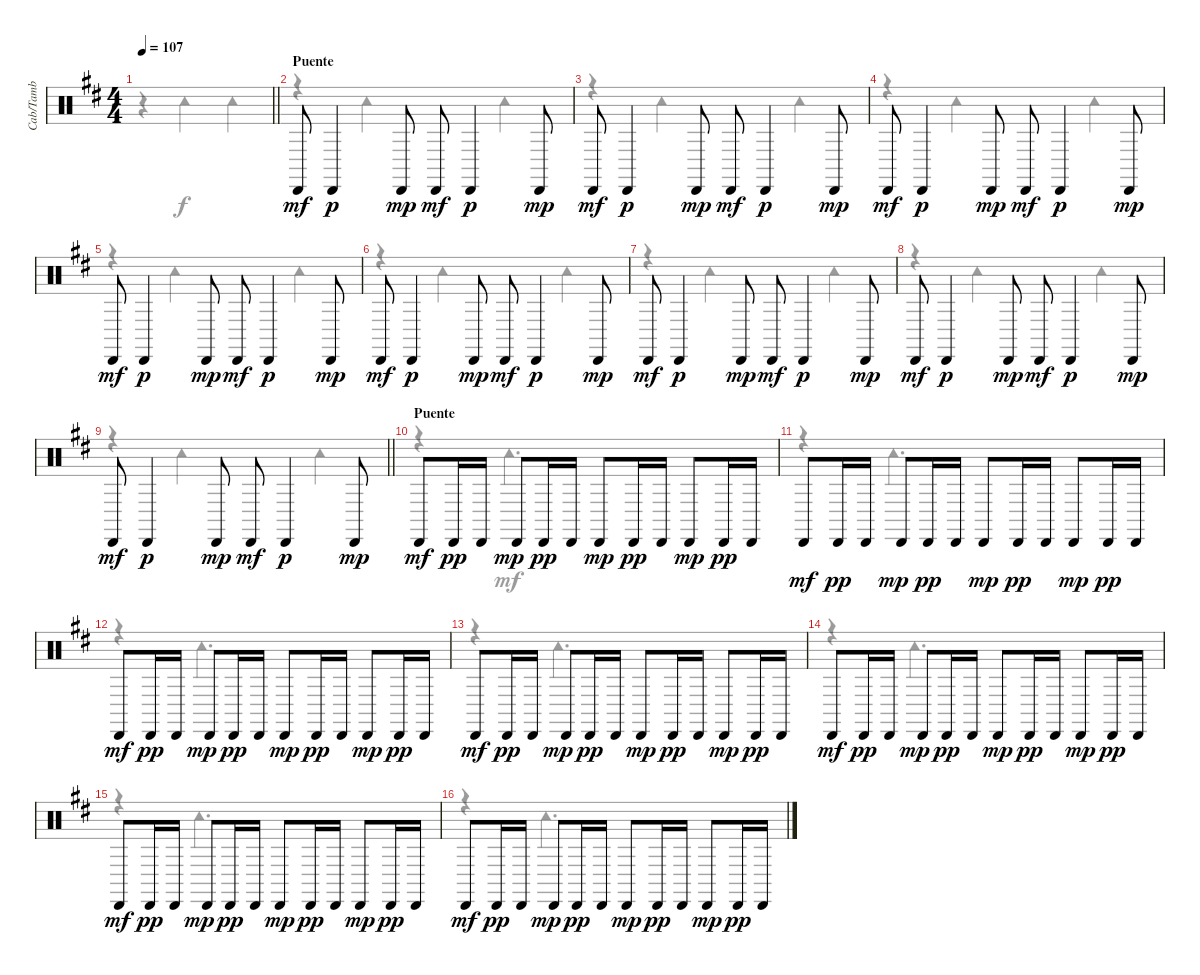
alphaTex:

\track ("Cab/Tamb" "Cab/Tamb") {instrument percussion}
\staff {score}
\articulation defaults
\voice
\ts (4 4)
\tempo 107
\clef neutral
\barLineRight lightlight
\ks d
|
\section ("" "Puente")
"Cabasa (hit)".8{dy mf} "Cabasa (hit)".4{dy p} "Cabasa (hit)".8{dy mp} "Cabasa (hit)".8{dy mf} "Cabasa (hit)".4{dy p} "Cabasa (hit)".8{dy mp} |
"Cabasa (hit)".8{dy mf} "Cabasa (hit)".4{dy p} "Cabasa (hit)".8{dy mp} "Cabasa (hit)".8{dy mf} "Cabasa (hit)".4{dy p} "Cabasa (hit)".8{dy mp} |
"Cabasa (hit)".8{dy mf} "Cabasa (hit)".4{dy p} "Cabasa (hit)".8{dy mp} "Cabasa (hit)".8{dy mf} "Cabasa (hit)".4{dy p} "Cabasa (hit)".8{dy mp} |
"Cabasa (hit)".8{dy mf} "Cabasa (hit)".4{dy p} "Cabasa (hit)".8{dy mp} "Cabasa (hit)".8{dy mf} "Cabasa (hit)".4{dy p} "Cabasa (hit)".8{dy mp} |
"Cabasa (hit)".8{dy mf} "Cabasa (hit)".4{dy p} "Cabasa (hit)".8{dy mp} "Cabasa (hit)".8{dy mf} "Cabasa (hit)".4{dy p} "Cabasa (hit)".8{dy mp} |
"Cabasa (hit)".8{dy mf} "Cabasa (hit)".4{dy p} "Cabasa (hit)".8{dy mp} "Cabasa (hit)".8{dy mf} "Cabasa (hit)".4{dy p} "Cabasa (hit)".8{dy mp} |
"Cabasa (hit)".8{dy mf} "Cabasa (hit)".4{dy p} "Cabasa (hit)".8{dy mp} "Cabasa (hit)".8{dy mf} "Cabasa (hit)".4{dy p} "Cabasa (hit)".8{dy mp} |
\barLineRight lightlight "Cabasa (hit)".8{dy mf} "Cabasa (hit)".4{dy p} "Cabasa (hit)".8{dy mp} "Cabasa (hit)".8{dy mf} "Cabasa (hit)".4{dy p} "Cabasa (hit)".8{dy mp}
|
\section ("" "Puente")
"Cabasa (hit)".8{dy mf} "Cabasa (hit)".16{dy pp} "Cabasa (hit)".16 "Cabasa (hit)".8{dy mp} "Cabasa (hit)".16{dy pp} "Cabasa (hit)".16 "Cabasa (hit)".8{dy mp} "Cabasa (hit)".16{dy pp} "Cabasa (hit)".16 "Cabasa (hit)".8{dy mp} "Cabasa (hit)".16{dy pp} "Cabasa (hit)".16 |
"Cabasa (hit)".8{dy mf} "Cabasa (hit)".16{dy pp} "Cabasa (hit)".16 "Cabasa (hit)".8{dy mp} "Cabasa (hit)".16{dy pp} "Cabasa (hit)".16 "Cabasa (hit)".8{dy mp} "Cabasa (hit)".16{dy pp} "Cabasa (hit)".16 "Cabasa (hit)".8{dy mp} "Cabasa (hit)".16{dy pp} "Cabasa (hit)".16 |
"Cabasa (hit)".8{dy mf} "Cabasa (hit)".16{dy pp} "Cabasa (hit)".16 "Cabasa (hit)".8{dy mp} "Cabasa (hit)".16{dy pp} "Cabasa (hit)".16 "Cabasa (hit)".8{dy mp} "Cabasa (hit)".16{dy pp} "Cabasa (hit)".16 "Cabasa (hit)".8{dy mp} "Cabasa (hit)".16{dy pp} "Cabasa (hit)".16 |
"Cabasa (hit)".8{dy mf} "Cabasa (hit)".16{dy pp} "Cabasa (hit)".16 "Cabasa (hit)".8{dy mp} "Cabasa (hit)".16{dy pp} "Cabasa (hit)".16 "Cabasa (hit)".8{dy mp} "Cabasa (hit)".16{dy pp} "Cabasa (hit)".16 "Cabasa (hit)".8{dy mp} "Cabasa (hit)".16{dy pp} "Cabasa (hit)".16 |
"Cabasa (hit)".8{dy mf} "Cabasa (hit)".16{dy pp} "Cabasa (hit)".16 "Cabasa (hit)".8{dy mp} "Cabasa (hit)".16{dy pp} "Cabasa (hit)".16 "Cabasa (hit)".8{dy mp} "Cabasa (hit)".16{dy pp} "Cabasa (hit)".16 "Cabasa (hit)".8{dy mp} "Cabasa (hit)".16{dy pp} "Cabasa (hit)".16 |
"Cabasa (hit)".8{dy mf} "Cabasa (hit)".16{dy pp} "Cabasa (hit)".16 "Cabasa (hit)".8{dy mp} "Cabasa (hit)".16{dy pp} "Cabasa (hit)".16 "Cabasa (hit)".8{dy mp} "Cabasa (hit)".16{dy pp} "Cabasa (hit)".16 "Cabasa (hit)".8{dy mp} "Cabasa (hit)".16{dy pp} "Cabasa (hit)".16 |
"Cabasa (hit)".8{dy mf} "Cabasa (hit)".16{dy pp} "Cabasa (hit)".16 "Cabasa (hit)".8{dy mp} "Cabasa (hit)".16{dy pp} "Cabasa (hit)".16 "Cabasa (hit)".8{dy mp} "Cabasa (hit)".16{dy pp} "Cabasa (hit)".16 "Cabasa (hit)".8{dy mp} "Cabasa (hit)".16{dy pp} "Cabasa (hit)".16
\voice
\clef neutral
\ottava regular
\simile none
\barLineRight lightlight
\ks d
r.4{dy f} "Tambourine (hit)".2 "Tambourine (hit)".4 |
r.4 "Tambourine (hit)".2 "Tambourine (hit)".4 |
r.4 "Tambourine (hit)".2 "Tambourine (hit)".4 |
r.4 "Tambourine (hit)".2 "Tambourine (hit)".4 |
r.4 "Tambourine (hit)".2 "Tambourine (hit)".4 |
r.4 "Tambourine (hit)".2 "Tambourine (hit)".4 |
r.4 "Tambourine (hit)".2 "Tambourine (hit)".4 |
r.4 "Tambourine (hit)".2 "Tambourine (hit)".4 |
\barLineRight lightlight
r.4 "Tambourine (hit)".2 "Tambourine (hit)".4 |
r.4 "Tambourine (hit)".2{d dy mf} |
r.4 "Tambourine (hit)".2{d} |
r.4 "Tambourine (hit)".2{d} |
r.4 "Tambourine (hit)".2{d} |
r.4 "Tambourine (hit)".2{d} |
r.4 "Tambourine (hit)".2{d} |
r.4 "Tambourine (hit)".2{d}
